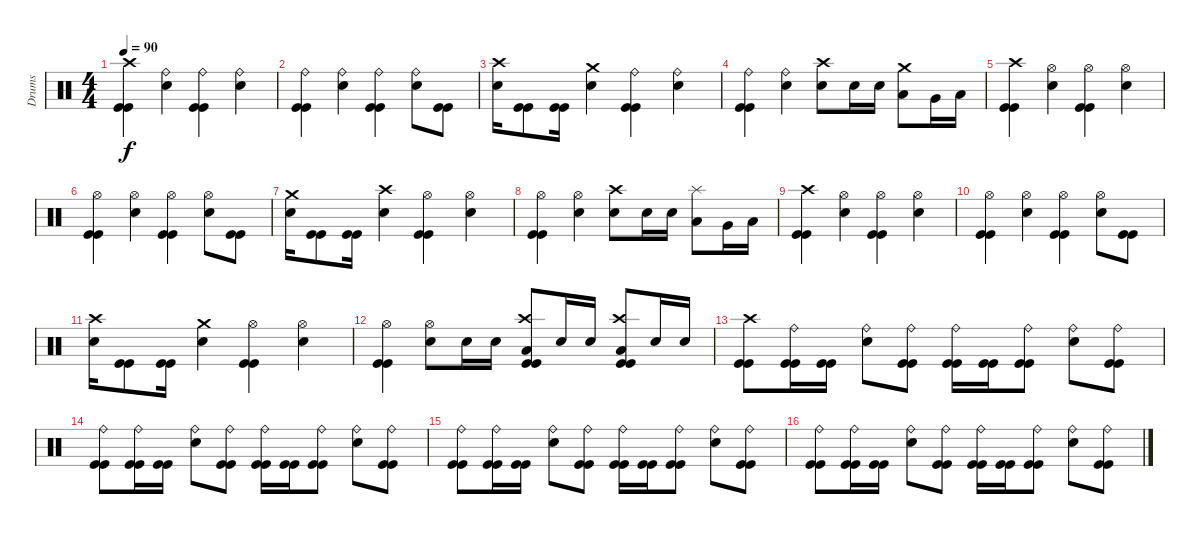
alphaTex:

\track ("Drums" "Drums") {instrument percussion}
\staff {score}
\articulation defaults
\ts (4 4)
\tempo 90
\clef neutral
\ks c
("Kick (hit)" "Kick (hit)" "Crash high (hit)").4{dy f} ("Snare (hit) 2" "Ride (bell)").4 ("Kick (hit)" "Kick (hit)" "Ride (bell)").4 ("Snare (hit) 2" "Ride (bell)").4 |
("Kick (hit)" "Kick (hit)" "Ride (bell)").4 ("Snare (hit) 2" "Ride (bell)").4 ("Kick (hit)" "Kick (hit)" "Ride (bell)").4 ("Snare (hit) 2" "Ride (bell)").8 ("Kick (hit)" "Kick (hit)").8 |
("Snare (hit) 2" "Crash high (hit)").16 ("Kick (hit)" "Kick (hit)").8 ("Kick (hit)" "Kick (hit)").16 ("Snare (hit) 2" "Crash medium (hit)").4 ("Kick (hit)" "Kick (hit)" "Ride (bell)").4 ("Snare (hit) 2" "Ride (bell)").4 |
("Kick (hit)" "Kick (hit)" "Ride (bell)").4 ("Snare (hit) 2" "Ride (bell)").4 ("Snare (hit) 2" "Crash high (hit)").8 "Snare (hit) 2".16 "Snare (hit) 2".16 ("Low Tom (hit)" "Crash medium (hit)").8 "Very Low Tom (hit)".16 "Low Floor Tom (hit)".16 |
("Kick (hit)" "Kick (hit)" "Crash high (hit)").4 ("Snare (hit) 2" "Hi-Hat (open)").4 ("Kick (hit)" "Kick (hit)" "Hi-Hat (open)").4 ("Snare (hit) 2" "Hi-Hat (open)").4 |
("Kick (hit)" "Kick (hit)" "Hi-Hat (open)").4 ("Snare (hit) 2" "Hi-Hat (open)").4 ("Kick (hit)" "Kick (hit)" "Hi-Hat (open)").4 ("Snare (hit) 2" "Hi-Hat (open)").8 ("Kick (hit)" "Kick (hit)").8 |
("Snare (hit) 2" "Crash medium (hit)").16 ("Kick (hit)" "Kick (hit)").8 ("Kick (hit)" "Kick (hit)").16 ("Snare (hit) 2" "Crash high (hit)").4 ("Kick (hit)" "Kick (hit)" "Hi-Hat (open)").4 ("Snare (hit) 2" "Hi-Hat (open)").4 |
("Kick (hit)" "Kick (hit)" "Hi-Hat (open)").4 ("Snare (hit) 2" "Hi-Hat (open)").4 ("Snare (hit) 2" "Crash high (hit)").8 "Snare (hit) 2".16 "Snare (hit) 2".16 ("Low Tom (hit)" "Splash (hit)").8 "Very Low Tom (hit)".16 "Low Floor Tom (hit)".16 |
("Kick (hit)" "Kick (hit)" "Crash high (hit)").4 ("Snare (hit) 2" "Hi-Hat (open)").4 ("Kick (hit)" "Kick (hit)" "Hi-Hat (open)").4 ("Snare (hit) 2" "Hi-Hat (open)").4 |
("Kick (hit)" "Kick (hit)" "Hi-Hat (open)").4 ("Snare (hit) 2" "Hi-Hat (open)").4 ("Kick (hit)" "Kick (hit)" "Hi-Hat (open)").4 ("Snare (hit) 2" "Hi-Hat (open)").8 ("Kick (hit)" "Kick (hit)").8 |
("Snare (hit) 2" "Crash high (hit)").16 ("Kick (hit)" "Kick (hit)").8 ("Kick (hit)" "Kick (hit)").16 ("Snare (hit) 2" "Crash medium (hit)").4 ("Kick (hit)" "Kick (hit)" "Hi-Hat (open)").4 ("Snare (hit) 2" "Hi-Hat (open)").4 |
("Kick (hit)" "Kick (hit)" "Hi-Hat (open)").4 ("Snare (hit) 2" "Hi-Hat (open)").8 "Snare (hit) 2".16 "Snare (hit) 2".16 ("Kick (hit)" "Kick (hit)" "Low Floor Tom (hit)" "Crash high (hit)").8 "Snare (hit) 2".16 "Snare (hit) 2".16 ("Kick (hit)" "Kick (hit)" "Low Floor Tom (hit)" "Crash high (hit)").8 "Snare (hit) 2".16 "Snare (hit) 2".16 |
("Kick (hit)" "Kick (hit)" "Crash high (hit)").8 ("Kick (hit)" "Kick (hit)" "Ride (bell)").16 ("Kick (hit)" "Kick (hit)").16 ("Snare (hit) 2" "Ride (bell)").8 ("Kick (hit)" "Kick (hit)" "Ride (bell)").8 ("Kick (hit)" "Kick (hit)" "Ride (bell)").16 ("Kick (hit)" "Kick (hit)").16 ("Kick (hit)" "Kick (hit)" "Ride (bell)").8 ("Snare (hit) 2" "Ride (bell)").8 ("Kick (hit)" "Kick (hit)" "Ride (bell)").8 |
("Kick (hit)" "Kick (hit)" "Ride (bell)").8 ("Kick (hit)" "Kick (hit)" "Ride (bell)").16 ("Kick (hit)" "Kick (hit)").16 ("Snare (hit) 2" "Ride (bell)").8 ("Kick (hit)" "Kick (hit)" "Ride (bell)").8 ("Kick (hit)" "Kick (hit)" "Ride (bell)").16 ("Kick (hit)" "Kick (hit)").16 ("Kick (hit)" "Kick (hit)" "Ride (bell)").8 ("Snare (hit) 2" "Ride (bell)").8 ("Kick (hit)" "Kick (hit)" "Ride (bell)").8 |
("Kick (hit)" "Kick (hit)" "Ride (bell)").8 ("Kick (hit)" "Kick (hit)" "Ride (bell)").16 ("Kick (hit)" "Kick (hit)").16 ("Snare (hit) 2" "Ride (bell)").8 ("Kick (hit)" "Kick (hit)" "Ride (bell)").8 ("Kick (hit)" "Kick (hit)" "Ride (bell)").16 ("Kick (hit)" "Kick (hit)").16 ("Kick (hit)" "Kick (hit)" "Ride (bell)").8 ("Snare (hit) 2" "Ride (bell)").8 ("Kick (hit)" "Kick (hit)" "Ride (bell)").8 |
("Kick (hit)" "Kick (hit)" "Ride (bell)").8 ("Kick (hit)" "Kick (hit)" "Ride (bell)").16 ("Kick (hit)" "Kick (hit)").16 ("Snare (hit) 2" "Ride (bell)").8 ("Kick (hit)" "Kick (hit)" "Ride (bell)").8 ("Kick (hit)" "Kick (hit)" "Ride (bell)").16 ("Kick (hit)" "Kick (hit)").16 ("Kick (hit)" "Kick (hit)" "Ride (bell)").8 ("Snare (hit) 2" "Ride (bell)").8 ("Kick (hit)" "Kick (hit)" "Ride (bell)").8
